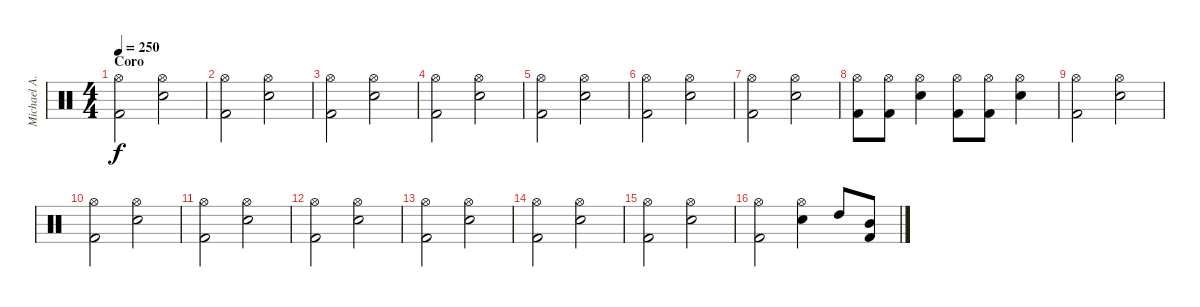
\track ("Michael A." "Michael A.") {instrument percussion}
\staff {score}
\articulation defaults
\ts (4 4)
\section ("" "Coro")
\tempo 250
\clef neutral
\ks c
("Hi-Hat (open)" "Kick (hit) 2").2{dy f} ("Hi-Hat (open)" "Electric Snare (hit)").2 |
("Hi-Hat (open)" "Kick (hit) 2").2 ("Hi-Hat (open)" "Electric Snare (hit)").2 |
("Hi-Hat (open)" "Kick (hit) 2").2 ("Hi-Hat (open)" "Electric Snare (hit)").2 |
("Hi-Hat (open)" "Kick (hit) 2").2 ("Hi-Hat (open)" "Electric Snare (hit)").2 |
("Hi-Hat (open)" "Kick (hit) 2").2 ("Hi-Hat (open)" "Electric Snare (hit)").2 |
("Hi-Hat (open)" "Kick (hit) 2").2 ("Hi-Hat (open)" "Electric Snare (hit)").2 |
("Hi-Hat (open)" "Kick (hit) 2").2 ("Hi-Hat (open)" "Electric Snare (hit)").2 |
("Hi-Hat (open)" "Kick (hit) 2").8 ("Hi-Hat (open)" "Kick (hit) 2").8 ("Hi-Hat (open)" "Electric Snare (hit)").4 ("Hi-Hat (open)" "Kick (hit) 2").8 ("Hi-Hat (open)" "Kick (hit) 2").8 ("Hi-Hat (open)" "Electric Snare (hit)").4 |
("Hi-Hat (open)" "Kick (hit) 2").2 ("Hi-Hat (open)" "Electric Snare (hit)").2 |
("Hi-Hat (open)" "Kick (hit) 2").2 ("Hi-Hat (open)" "Electric Snare (hit)").2 |
("Hi-Hat (open)" "Kick (hit) 2").2 ("Hi-Hat (open)" "Electric Snare (hit)").2 |
("Hi-Hat (open)" "Kick (hit) 2").2 ("Hi-Hat (open)" "Electric Snare (hit)").2 |
("Hi-Hat (open)" "Kick (hit) 2").2 ("Hi-Hat (open)" "Electric Snare (hit)").2 |
("Hi-Hat (open)" "Kick (hit) 2").2 ("Hi-Hat (open)" "Electric Snare (hit)").2 |
("Hi-Hat (open)" "Kick (hit) 2").2 ("Hi-Hat (open)" "Electric Snare (hit)").2 |
("Hi-Hat (open)" "Kick (hit) 2").2 ("Hi-Hat (open)" "Electric Snare (hit)").4 "High Tom (hit)".8 ("Mid Tom (hit)" "Kick (hit) 2").8
